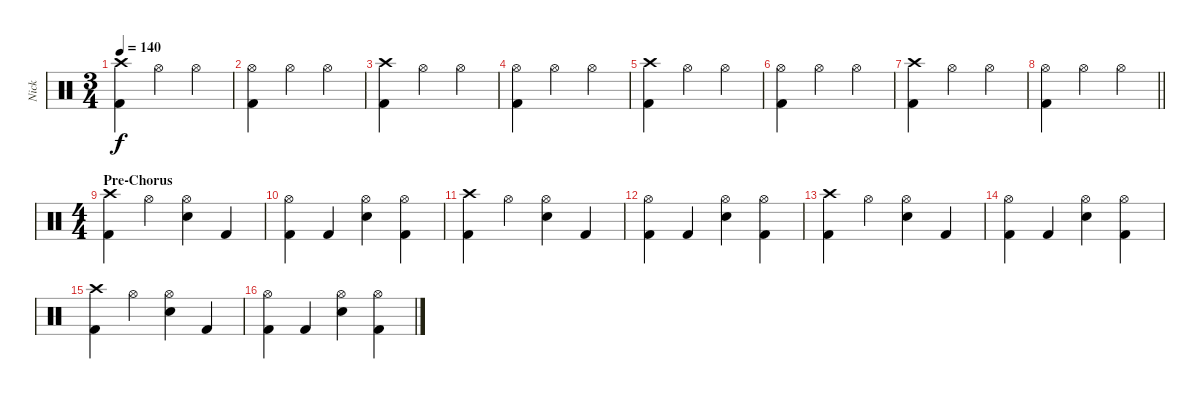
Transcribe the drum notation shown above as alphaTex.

\track ("Nick" "Nick") {instrument percussion}
\staff {score}
\articulation defaults
\ts (3 4)
\tempo 140
\clef neutral
\ks c
("Crash high (hit)" "Kick (hit) 2").4{dy f} "Hi-Hat (open)".4 "Hi-Hat (open)".4 |
("Hi-Hat (open)" "Kick (hit) 2").4 "Hi-Hat (open)".4 "Hi-Hat (open)".4 |
("Crash high (hit)" "Kick (hit) 2").4 "Hi-Hat (open)".4 "Hi-Hat (open)".4 |
("Hi-Hat (open)" "Kick (hit) 2").4 "Hi-Hat (open)".4 "Hi-Hat (open)".4 |
("Crash high (hit)" "Kick (hit) 2").4 "Hi-Hat (open)".4 "Hi-Hat (open)".4 |
("Hi-Hat (open)" "Kick (hit) 2").4 "Hi-Hat (open)".4 "Hi-Hat (open)".4 |
("Crash high (hit)" "Kick (hit) 2").4 "Hi-Hat (open)".4 "Hi-Hat (open)".4 |
\barLineRight lightlight
("Hi-Hat (open)" "Kick (hit) 2").4 "Hi-Hat (open)".4 "Hi-Hat (open)".4 |
\ts (4 4)
\section ("" "Pre-Chorus")
("Crash high (hit)" "Kick (hit) 2").4 "Hi-Hat (open)".4 ("Hi-Hat (open)" "Snare (hit) 2").4 "Kick (hit) 2".4 |
("Hi-Hat (open)" "Kick (hit) 2").4 "Kick (hit) 2".4 ("Hi-Hat (open)" "Snare (hit) 2").4 ("Hi-Hat (open)" "Kick (hit) 2").4 |
("Crash high (hit)" "Kick (hit) 2").4 "Hi-Hat (open)".4 ("Hi-Hat (open)" "Snare (hit) 2").4 "Kick (hit) 2".4 |
("Hi-Hat (open)" "Kick (hit) 2").4 "Kick (hit) 2".4 ("Hi-Hat (open)" "Snare (hit) 2").4 ("Hi-Hat (open)" "Kick (hit) 2").4 |
("Crash high (hit)" "Kick (hit) 2").4 "Hi-Hat (open)".4 ("Hi-Hat (open)" "Snare (hit) 2").4 "Kick (hit) 2".4 |
("Hi-Hat (open)" "Kick (hit) 2").4 "Kick (hit) 2".4 ("Hi-Hat (open)" "Snare (hit) 2").4 ("Hi-Hat (open)" "Kick (hit) 2").4 |
("Crash high (hit)" "Kick (hit) 2").4 "Hi-Hat (open)".4 ("Hi-Hat (open)" "Snare (hit) 2").4 "Kick (hit) 2".4 |
("Hi-Hat (open)" "Kick (hit) 2").4 "Kick (hit) 2".4 ("Hi-Hat (open)" "Snare (hit) 2").4 ("Hi-Hat (open)" "Kick (hit) 2").4
